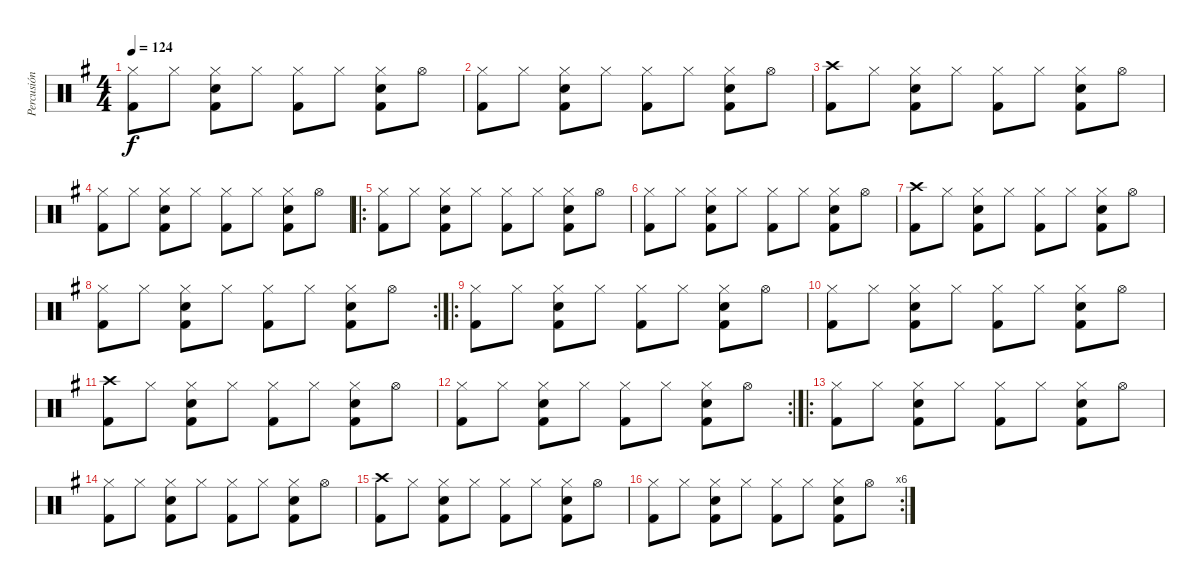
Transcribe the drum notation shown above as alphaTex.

\track ("Percusión" "Percusión") {instrument percussion}
\staff {score}
\articulation defaults
\ts (4 4)
\tempo 124
\clef neutral
\ks g
("Hi-Hat (closed)" "Kick (hit) 2").8{dy f} "Hi-Hat (closed)".8 ("Hi-Hat (closed)" "Electric Snare (hit)" "Kick (hit) 2").8 "Hi-Hat (closed)".8 ("Hi-Hat (closed)" "Kick (hit) 2").8 "Hi-Hat (closed)".8 ("Hi-Hat (closed)" "Electric Snare (hit)" "Kick (hit) 2").8 "Hi-Hat (open)".8 |
("Hi-Hat (closed)" "Kick (hit) 2").8 "Hi-Hat (closed)".8 ("Hi-Hat (closed)" "Electric Snare (hit)" "Kick (hit) 2").8 "Hi-Hat (closed)".8 ("Hi-Hat (closed)" "Kick (hit) 2").8 "Hi-Hat (closed)".8 ("Hi-Hat (closed)" "Electric Snare (hit)" "Kick (hit) 2").8 "Hi-Hat (open)".8 |
("Crash high (hit)" "Kick (hit) 2").8 "Hi-Hat (closed)".8 ("Hi-Hat (closed)" "Electric Snare (hit)" "Kick (hit) 2").8 "Hi-Hat (closed)".8 ("Hi-Hat (closed)" "Kick (hit) 2").8 "Hi-Hat (closed)".8 ("Hi-Hat (closed)" "Electric Snare (hit)" "Kick (hit) 2").8 "Hi-Hat (open)".8 |
("Hi-Hat (closed)" "Kick (hit) 2").8 "Hi-Hat (closed)".8 ("Hi-Hat (closed)" "Electric Snare (hit)" "Kick (hit) 2").8 "Hi-Hat (closed)".8 ("Hi-Hat (closed)" "Kick (hit) 2").8 "Hi-Hat (closed)".8 ("Hi-Hat (closed)" "Electric Snare (hit)" "Kick (hit) 2").8 "Hi-Hat (open)".8 |
\ro
("Hi-Hat (closed)" "Kick (hit) 2").8 "Hi-Hat (closed)".8 ("Hi-Hat (closed)" "Electric Snare (hit)" "Kick (hit) 2").8 "Hi-Hat (closed)".8 ("Hi-Hat (closed)" "Kick (hit) 2").8 "Hi-Hat (closed)".8 ("Hi-Hat (closed)" "Electric Snare (hit)" "Kick (hit) 2").8 "Hi-Hat (open)".8 |
("Hi-Hat (closed)" "Kick (hit) 2").8 "Hi-Hat (closed)".8 ("Hi-Hat (closed)" "Electric Snare (hit)" "Kick (hit) 2").8 "Hi-Hat (closed)".8 ("Hi-Hat (closed)" "Kick (hit) 2").8 "Hi-Hat (closed)".8 ("Hi-Hat (closed)" "Electric Snare (hit)" "Kick (hit) 2").8 "Hi-Hat (open)".8 |
("Crash high (hit)" "Kick (hit) 2").8 "Hi-Hat (closed)".8 ("Hi-Hat (closed)" "Electric Snare (hit)" "Kick (hit) 2").8 "Hi-Hat (closed)".8 ("Hi-Hat (closed)" "Kick (hit) 2").8 "Hi-Hat (closed)".8 ("Hi-Hat (closed)" "Electric Snare (hit)" "Kick (hit) 2").8 "Hi-Hat (open)".8 |
\rc 2
("Hi-Hat (closed)" "Kick (hit) 2").8 "Hi-Hat (closed)".8 ("Hi-Hat (closed)" "Electric Snare (hit)" "Kick (hit) 2").8 "Hi-Hat (closed)".8 ("Hi-Hat (closed)" "Kick (hit) 2").8 "Hi-Hat (closed)".8 ("Hi-Hat (closed)" "Electric Snare (hit)" "Kick (hit) 2").8 "Hi-Hat (open)".8 |
\ro
("Hi-Hat (closed)" "Kick (hit) 2").8 "Hi-Hat (closed)".8 ("Hi-Hat (closed)" "Electric Snare (hit)" "Kick (hit) 2").8 "Hi-Hat (closed)".8 ("Hi-Hat (closed)" "Kick (hit) 2").8 "Hi-Hat (closed)".8 ("Hi-Hat (closed)" "Electric Snare (hit)" "Kick (hit) 2").8 "Hi-Hat (open)".8 |
("Hi-Hat (closed)" "Kick (hit) 2").8 "Hi-Hat (closed)".8 ("Hi-Hat (closed)" "Electric Snare (hit)" "Kick (hit) 2").8 "Hi-Hat (closed)".8 ("Hi-Hat (closed)" "Kick (hit) 2").8 "Hi-Hat (closed)".8 ("Hi-Hat (closed)" "Electric Snare (hit)" "Kick (hit) 2").8 "Hi-Hat (open)".8 |
("Crash high (hit)" "Kick (hit) 2").8 "Hi-Hat (closed)".8 ("Hi-Hat (closed)" "Electric Snare (hit)" "Kick (hit) 2").8 "Hi-Hat (closed)".8 ("Hi-Hat (closed)" "Kick (hit) 2").8 "Hi-Hat (closed)".8 ("Hi-Hat (closed)" "Electric Snare (hit)" "Kick (hit) 2").8 "Hi-Hat (open)".8 |
\rc 2
("Hi-Hat (closed)" "Kick (hit) 2").8 "Hi-Hat (closed)".8 ("Hi-Hat (closed)" "Electric Snare (hit)" "Kick (hit) 2").8 "Hi-Hat (closed)".8 ("Hi-Hat (closed)" "Kick (hit) 2").8 "Hi-Hat (closed)".8 ("Hi-Hat (closed)" "Electric Snare (hit)" "Kick (hit) 2").8 "Hi-Hat (open)".8 |
\ro
("Hi-Hat (closed)" "Kick (hit) 2").8 "Hi-Hat (closed)".8 ("Hi-Hat (closed)" "Electric Snare (hit)" "Kick (hit) 2").8 "Hi-Hat (closed)".8 ("Hi-Hat (closed)" "Kick (hit) 2").8 "Hi-Hat (closed)".8 ("Hi-Hat (closed)" "Electric Snare (hit)" "Kick (hit) 2").8 "Hi-Hat (open)".8 |
("Hi-Hat (closed)" "Kick (hit) 2").8 "Hi-Hat (closed)".8 ("Hi-Hat (closed)" "Electric Snare (hit)" "Kick (hit) 2").8 "Hi-Hat (closed)".8 ("Hi-Hat (closed)" "Kick (hit) 2").8 "Hi-Hat (closed)".8 ("Hi-Hat (closed)" "Electric Snare (hit)" "Kick (hit) 2").8 "Hi-Hat (open)".8 |
("Crash high (hit)" "Kick (hit) 2").8 "Hi-Hat (closed)".8 ("Hi-Hat (closed)" "Electric Snare (hit)" "Kick (hit) 2").8 "Hi-Hat (closed)".8 ("Hi-Hat (closed)" "Kick (hit) 2").8 "Hi-Hat (closed)".8 ("Hi-Hat (closed)" "Electric Snare (hit)" "Kick (hit) 2").8 "Hi-Hat (open)".8 |
\rc 6
("Hi-Hat (closed)" "Kick (hit) 2").8 "Hi-Hat (closed)".8 ("Hi-Hat (closed)" "Electric Snare (hit)" "Kick (hit) 2").8 "Hi-Hat (closed)".8 ("Hi-Hat (closed)" "Kick (hit) 2").8 "Hi-Hat (closed)".8 ("Hi-Hat (closed)" "Electric Snare (hit)" "Kick (hit) 2").8 "Hi-Hat (open)".8
